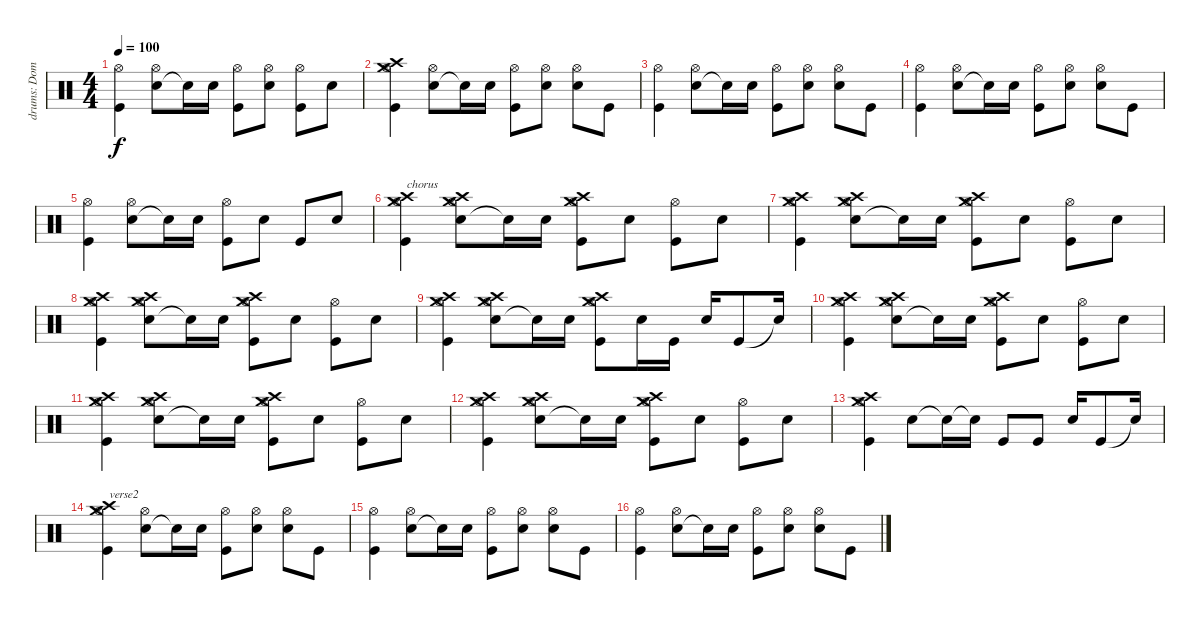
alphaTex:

\track ("drums: Dom" "drums: Dom") {instrument percussion}
\staff {score}
\articulation defaults
\ts (4 4)
\tempo 100
\clef neutral
\ks c
("Kick (hit)" "Hi-Hat (open)").4{dy f} ("Snare (hit) 2" "Hi-Hat (open)").8 "Snare (hit)"{t}.16 "Snare (hit) 2".16 ("Kick (hit)" "Hi-Hat (open)").8 ("Snare (hit) 2" "Hi-Hat (open)").8 ("Kick (hit)" "Hi-Hat (open)").8 "Snare (hit) 2".8 |
("Kick (hit)" "Hi-Hat (open)" "Crash high (hit)" "Crash medium (hit)").4 ("Snare (hit) 2" "Hi-Hat (open)").8 "Snare (hit)"{t}.16 "Snare (hit) 2".16 ("Kick (hit)" "Hi-Hat (open)").8 ("Snare (hit) 2" "Hi-Hat (open)").8 ("Snare (hit) 2" "Hi-Hat (open)").8 "Kick (hit)".8 |
("Kick (hit)" "Hi-Hat (open)").4 ("Snare (hit) 2" "Hi-Hat (open)").8 "Snare (hit)"{t}.16 "Snare (hit) 2".16 ("Kick (hit)" "Hi-Hat (open)").8 ("Snare (hit) 2" "Hi-Hat (open)").8 ("Snare (hit) 2" "Hi-Hat (open)").8 "Kick (hit)".8 |
("Kick (hit)" "Hi-Hat (open)").4 ("Snare (hit) 2" "Hi-Hat (open)").8 "Snare (hit)"{t}.16 "Snare (hit) 2".16 ("Kick (hit)" "Hi-Hat (open)").8 ("Snare (hit) 2" "Hi-Hat (open)").8 ("Snare (hit) 2" "Hi-Hat (open)").8 "Kick (hit)".8 |
("Kick (hit)" "Hi-Hat (open)").4 ("Snare (hit) 2" "Hi-Hat (open)").8 "Snare (hit)"{t}.16 "Snare (hit) 2".16 ("Kick (hit)" "Hi-Hat (open)").8 "Snare (hit) 2".8 "Kick (hit)".8 "Snare (hit) 2".8 |
("Kick (hit)" "Hi-Hat (open)" "Crash high (hit)" "Crash medium (hit)").4{txt "chorus"} ("Snare (hit) 2" "Hi-Hat (open)" "Crash high (hit)" "Crash medium (hit)").8 "Snare (hit)"{t}.16 "Snare (hit) 2".16 ("Kick (hit)" "Hi-Hat (open)" "Crash high (hit)" "Crash medium (hit)").8 "Snare (hit) 2".8 ("Kick (hit)" "Hi-Hat (open)").8 "Snare (hit) 2".8 |
("Kick (hit)" "Hi-Hat (open)" "Crash high (hit)" "Crash medium (hit)").4 ("Snare (hit) 2" "Hi-Hat (open)" "Crash high (hit)" "Crash medium (hit)").8 "Snare (hit)"{t}.16 "Snare (hit) 2".16 ("Kick (hit)" "Hi-Hat (open)" "Crash high (hit)" "Crash medium (hit)").8 "Snare (hit) 2".8 ("Kick (hit)" "Hi-Hat (open)").8 "Snare (hit) 2".8 |
("Kick (hit)" "Hi-Hat (open)" "Crash high (hit)" "Crash medium (hit)").4 ("Snare (hit) 2" "Hi-Hat (open)" "Crash high (hit)" "Crash medium (hit)").8 "Snare (hit)"{t}.16 "Snare (hit) 2".16 ("Kick (hit)" "Hi-Hat (open)" "Crash high (hit)" "Crash medium (hit)").8 "Snare (hit) 2".8 ("Kick (hit)" "Hi-Hat (open)").8 "Snare (hit) 2".8 |
("Kick (hit)" "Hi-Hat (open)" "Crash high (hit)" "Crash medium (hit)").4 ("Snare (hit) 2" "Hi-Hat (open)" "Crash high (hit)" "Crash medium (hit)").8 "Snare (hit)"{t}.16 "Snare (hit) 2".16 ("Kick (hit)" "Hi-Hat (open)" "Crash high (hit)" "Crash medium (hit)").8 "Snare (hit) 2".16 "Kick (hit)".16 "Snare (hit) 2".16 "Kick (hit)".8 "Snare (hit)"{t}.16 |
("Kick (hit)" "Hi-Hat (open)" "Crash high (hit)" "Crash medium (hit)").4 ("Snare (hit) 2" "Hi-Hat (open)" "Crash high (hit)" "Crash medium (hit)").8 "Snare (hit)"{t}.16 "Snare (hit) 2".16 ("Kick (hit)" "Hi-Hat (open)" "Crash high (hit)" "Crash medium (hit)").8 "Snare (hit) 2".8 ("Kick (hit)" "Hi-Hat (open)").8 "Snare (hit) 2".8 |
("Kick (hit)" "Hi-Hat (open)" "Crash high (hit)" "Crash medium (hit)").4 ("Snare (hit) 2" "Hi-Hat (open)" "Crash high (hit)" "Crash medium (hit)").8 "Snare (hit)"{t}.16 "Snare (hit) 2".16 ("Kick (hit)" "Hi-Hat (open)" "Crash high (hit)" "Crash medium (hit)").8 "Snare (hit) 2".8 ("Kick (hit)" "Hi-Hat (open)").8 "Snare (hit) 2".8 |
("Kick (hit)" "Hi-Hat (open)" "Crash high (hit)" "Crash medium (hit)").4 ("Snare (hit) 2" "Hi-Hat (open)" "Crash high (hit)" "Crash medium (hit)").8 "Snare (hit)"{t}.16 "Snare (hit) 2".16 ("Kick (hit)" "Hi-Hat (open)" "Crash high (hit)" "Crash medium (hit)").8 "Snare (hit) 2".8 ("Kick (hit)" "Hi-Hat (open)").8 "Snare (hit) 2".8 |
("Kick (hit)" "Hi-Hat (open)" "Crash high (hit)" "Crash medium (hit)").4 "Snare (hit) 2".8 "Snare (hit)"{t}.16 "Snare (hit) 2"{t}.16 "Kick (hit)".8 "Kick (hit)".8 "Snare (hit) 2".16 "Kick (hit)".8 "Snare (hit)"{t}.16 |
("Kick (hit)" "Hi-Hat (open)" "Crash high (hit)" "Crash medium (hit)").4{txt "verse2"} ("Snare (hit) 2" "Hi-Hat (open)").8 "Snare (hit)"{t}.16 "Snare (hit) 2".16 ("Kick (hit)" "Hi-Hat (open)").8 ("Snare (hit) 2" "Hi-Hat (open)").8 ("Snare (hit) 2" "Hi-Hat (open)").8 "Kick (hit)".8 |
("Kick (hit)" "Hi-Hat (open)").4 ("Snare (hit) 2" "Hi-Hat (open)").8 "Snare (hit)"{t}.16 "Snare (hit) 2".16 ("Kick (hit)" "Hi-Hat (open)").8 ("Snare (hit) 2" "Hi-Hat (open)").8 ("Snare (hit) 2" "Hi-Hat (open)").8 "Kick (hit)".8 |
("Kick (hit)" "Hi-Hat (open)").4 ("Snare (hit) 2" "Hi-Hat (open)").8 "Snare (hit)"{t}.16 "Snare (hit) 2".16 ("Kick (hit)" "Hi-Hat (open)").8 ("Snare (hit) 2" "Hi-Hat (open)").8 ("Snare (hit) 2" "Hi-Hat (open)").8 "Kick (hit)".8
